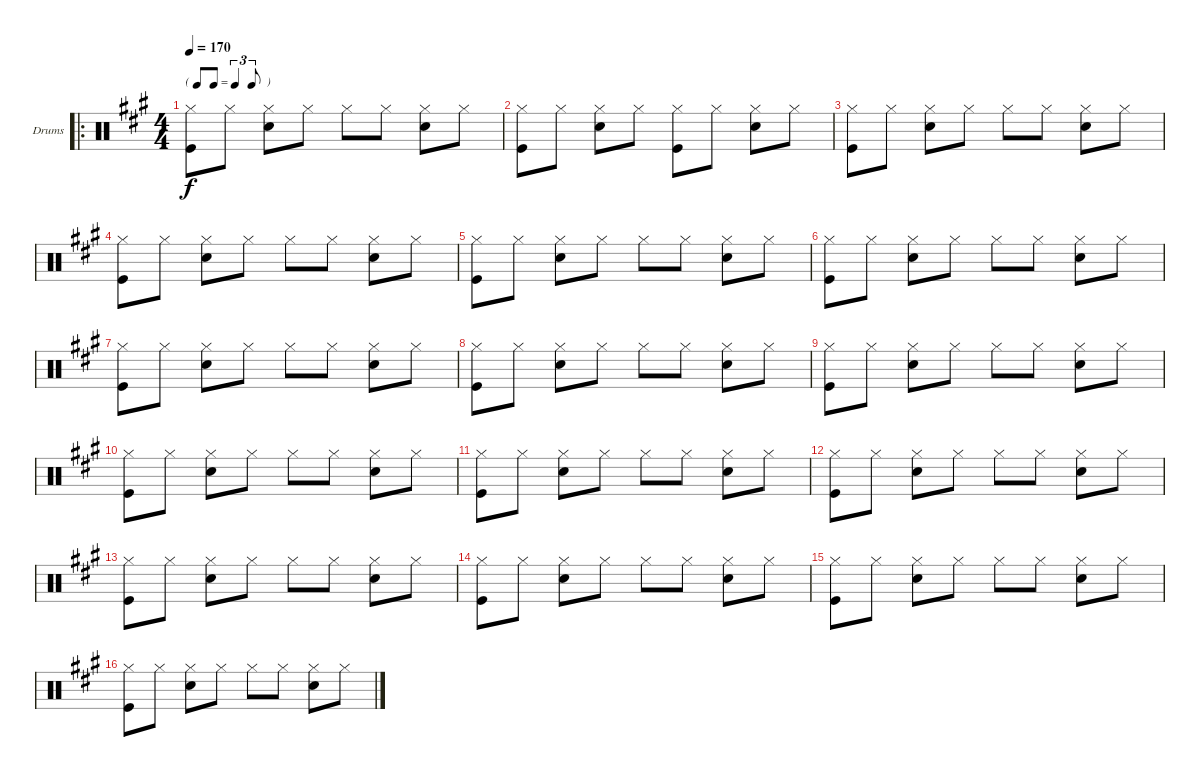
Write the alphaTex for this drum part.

\bracketExtendMode groupsimilarinstruments
\firstSystemTrackNameOrientation horizontal
\otherSystemsTrackNameOrientation horizontal
\track ("Ringo" "Drums") {instrument percussion}
\staff {score}
\articulation defaults
\ro
\ts (4 4)
\tf triplet8th
\tempo 170
\clef neutral
\ks a
("Hi-Hat (closed)" "Kick (hit)").8{dy f} "Hi-Hat (closed)".8 ("Hi-Hat (closed)" "Snare (hit) 2").8 "Hi-Hat (closed)".8 "Hi-Hat (closed)".8 "Hi-Hat (closed)".8 ("Hi-Hat (closed)" "Snare (hit) 2").8 "Hi-Hat (closed)".8 |
("Hi-Hat (closed)" "Kick (hit)").8 "Hi-Hat (closed)".8 ("Hi-Hat (closed)" "Snare (hit) 2").8 "Hi-Hat (closed)".8 ("Hi-Hat (closed)" "Kick (hit)").8 "Hi-Hat (closed)".8 ("Hi-Hat (closed)" "Snare (hit) 2").8 "Hi-Hat (closed)".8 |
("Hi-Hat (closed)" "Kick (hit)").8 "Hi-Hat (closed)".8 ("Hi-Hat (closed)" "Snare (hit) 2").8 "Hi-Hat (closed)".8 "Hi-Hat (closed)".8 "Hi-Hat (closed)".8 ("Hi-Hat (closed)" "Snare (hit) 2").8 "Hi-Hat (closed)".8 |
("Hi-Hat (closed)" "Kick (hit)").8 "Hi-Hat (closed)".8 ("Hi-Hat (closed)" "Snare (hit) 2").8 "Hi-Hat (closed)".8 "Hi-Hat (closed)".8 "Hi-Hat (closed)".8 ("Hi-Hat (closed)" "Snare (hit) 2").8 "Hi-Hat (closed)".8 |
("Hi-Hat (closed)" "Kick (hit)").8 "Hi-Hat (closed)".8 ("Hi-Hat (closed)" "Snare (hit) 2").8 "Hi-Hat (closed)".8 "Hi-Hat (closed)".8 "Hi-Hat (closed)".8 ("Hi-Hat (closed)" "Snare (hit) 2").8 "Hi-Hat (closed)".8 |
("Hi-Hat (closed)" "Kick (hit)").8 "Hi-Hat (closed)".8 ("Hi-Hat (closed)" "Snare (hit) 2").8 "Hi-Hat (closed)".8 "Hi-Hat (closed)".8 "Hi-Hat (closed)".8 ("Hi-Hat (closed)" "Snare (hit) 2").8 "Hi-Hat (closed)".8 |
("Hi-Hat (closed)" "Kick (hit)").8 "Hi-Hat (closed)".8 ("Hi-Hat (closed)" "Snare (hit) 2").8 "Hi-Hat (closed)".8 "Hi-Hat (closed)".8 "Hi-Hat (closed)".8 ("Hi-Hat (closed)" "Snare (hit) 2").8 "Hi-Hat (closed)".8 |
("Hi-Hat (closed)" "Kick (hit)").8 "Hi-Hat (closed)".8 ("Hi-Hat (closed)" "Snare (hit) 2").8 "Hi-Hat (closed)".8 "Hi-Hat (closed)".8 "Hi-Hat (closed)".8 ("Hi-Hat (closed)" "Snare (hit) 2").8 "Hi-Hat (closed)".8 |
("Hi-Hat (closed)" "Kick (hit)").8 "Hi-Hat (closed)".8 ("Hi-Hat (closed)" "Snare (hit) 2").8 "Hi-Hat (closed)".8 "Hi-Hat (closed)".8 "Hi-Hat (closed)".8 ("Hi-Hat (closed)" "Snare (hit) 2").8 "Hi-Hat (closed)".8 |
("Hi-Hat (closed)" "Kick (hit)").8 "Hi-Hat (closed)".8 ("Hi-Hat (closed)" "Snare (hit) 2").8 "Hi-Hat (closed)".8 "Hi-Hat (closed)".8 "Hi-Hat (closed)".8 ("Hi-Hat (closed)" "Snare (hit) 2").8 "Hi-Hat (closed)".8 |
("Hi-Hat (closed)" "Kick (hit)").8 "Hi-Hat (closed)".8 ("Hi-Hat (closed)" "Snare (hit) 2").8 "Hi-Hat (closed)".8 "Hi-Hat (closed)".8 "Hi-Hat (closed)".8 ("Hi-Hat (closed)" "Snare (hit) 2").8 "Hi-Hat (closed)".8 |
("Hi-Hat (closed)" "Kick (hit)").8 "Hi-Hat (closed)".8 ("Hi-Hat (closed)" "Snare (hit) 2").8 "Hi-Hat (closed)".8 "Hi-Hat (closed)".8 "Hi-Hat (closed)".8 ("Hi-Hat (closed)" "Snare (hit) 2").8 "Hi-Hat (closed)".8 |
("Hi-Hat (closed)" "Kick (hit)").8 "Hi-Hat (closed)".8 ("Hi-Hat (closed)" "Snare (hit) 2").8 "Hi-Hat (closed)".8 "Hi-Hat (closed)".8 "Hi-Hat (closed)".8 ("Hi-Hat (closed)" "Snare (hit) 2").8 "Hi-Hat (closed)".8 |
("Hi-Hat (closed)" "Kick (hit)").8 "Hi-Hat (closed)".8 ("Hi-Hat (closed)" "Snare (hit) 2").8 "Hi-Hat (closed)".8 "Hi-Hat (closed)".8 "Hi-Hat (closed)".8 ("Hi-Hat (closed)" "Snare (hit) 2").8 "Hi-Hat (closed)".8 |
("Hi-Hat (closed)" "Kick (hit)").8 "Hi-Hat (closed)".8 ("Hi-Hat (closed)" "Snare (hit) 2").8 "Hi-Hat (closed)".8 "Hi-Hat (closed)".8 "Hi-Hat (closed)".8 ("Hi-Hat (closed)" "Snare (hit) 2").8 "Hi-Hat (closed)".8 |
("Hi-Hat (closed)" "Kick (hit)").8 "Hi-Hat (closed)".8 ("Hi-Hat (closed)" "Snare (hit) 2").8 "Hi-Hat (closed)".8 "Hi-Hat (closed)".8 "Hi-Hat (closed)".8 ("Hi-Hat (closed)" "Snare (hit) 2").8 "Hi-Hat (closed)".8
